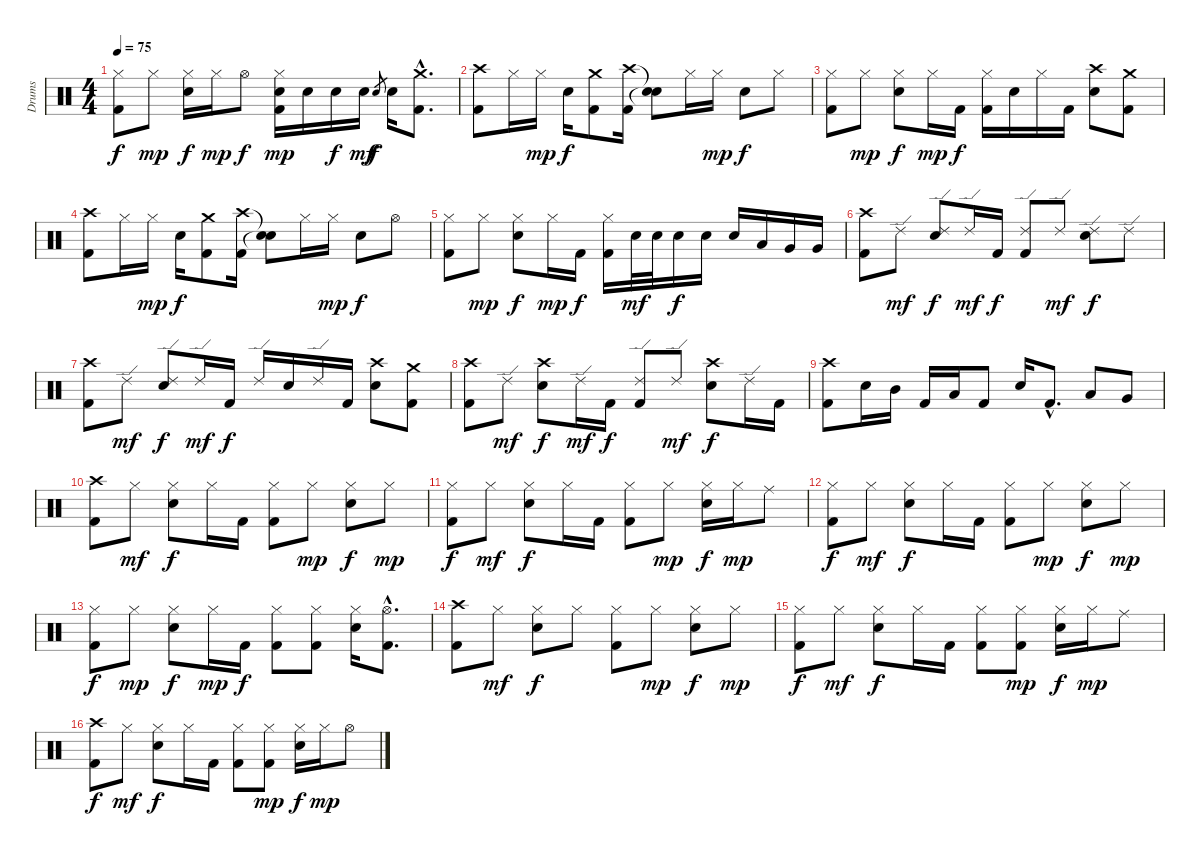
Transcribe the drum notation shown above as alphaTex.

\track ("Drums" "Drums") {instrument percussion}
\staff {score}
\articulation defaults
\ts (4 4)
\tempo 75
\clef neutral
\ks c
("Hi-Hat (closed)" "Kick (hit) 2").8{dy f} "Hi-Hat (closed)".8{dy mp} ("Hi-Hat (closed)" "Electric Snare (hit)").16{dy f} "Hi-Hat (closed)".16{dy mp} "Hi-Hat (open)".8{dy f} ("Hi-Hat (closed)" "Electric Snare (hit)" "Kick (hit) 2").16{dy mp} "Electric Snare (hit)".16 "Electric Snare (hit)".16{dy f} "Electric Snare (hit)".16{dy mf} "Electric Snare (hit)".8{gr dy f} "Electric Snare (hit)".16 ("Crash medium (hit)"{hac} "Kick (hit) 2"{hac}).8{d} |
("Crash high (hit)" "Kick (hit) 2").8 "Hi-Hat (closed)".16 "Hi-Hat (closed)".16{dy mp} "Electric Snare (hit)".16{dy f} ("Crash medium (hit)" "Kick (hit) 2").8 ("Crash high (hit)" "Kick (hit) 2").16 ("Snare (hit)"{t} "Snare (hit)"{t}).8 "Hi-Hat (closed)".16 "Hi-Hat (closed)".16{dy mp} "Electric Snare (hit)".8{dy f} "Hi-Hat (closed)".8 |
("Hi-Hat (closed)" "Kick (hit) 2").8 "Hi-Hat (closed)".8{dy mp} ("Hi-Hat (closed)" "Electric Snare (hit)").8{dy f} "Hi-Hat (closed)".16{dy mp} "Kick (hit) 2".16{dy f} ("Hi-Hat (closed)" "Kick (hit) 2").16 "Electric Snare (hit)".16 "Hi-Hat (closed)".16 "Kick (hit) 2".16 ("Crash high (hit)" "Electric Snare (hit)").8 ("Crash medium (hit)" "Kick (hit) 2").8 |
("Crash high (hit)" "Kick (hit) 2").8 "Hi-Hat (closed)".16 "Hi-Hat (closed)".16{dy mp} "Electric Snare (hit)".16{dy f} ("Crash medium (hit)" "Kick (hit) 2").8 ("Crash high (hit)" "Kick (hit) 2").16 ("Snare (hit)"{t} "Snare (hit)"{t}).8 "Hi-Hat (closed)".16 "Hi-Hat (closed)".16{dy mp} "Electric Snare (hit)".8{dy f} "Hi-Hat (open)".8 |
("Hi-Hat (closed)" "Kick (hit) 2").8 "Hi-Hat (closed)".8{dy mp} ("Hi-Hat (closed)" "Electric Snare (hit)").8{dy f} "Hi-Hat (closed)".16{dy mp} "Kick (hit) 2".16{dy f} ("Hi-Hat (closed)" "Kick (hit) 2").16 "Electric Snare (hit)".32{dy mf} "Electric Snare (hit)".32 "Electric Snare (hit)".16{dy f} "Electric Snare (hit)".16 "Electric Snare (hit)".16 "Low Tom (hit)".16 "Very Low Tom (hit)".16 "Very Low Tom (hit)".16 |
("Crash high (hit)" "Kick (hit) 2").8 "Ride (edge) 2".8{dy mf} ("Ride (edge) 2" "Electric Snare (hit)").8{dy f} "Ride (edge) 2".16{dy mf} "Kick (hit) 2".16{dy f} ("Ride (edge) 2" "Kick (hit) 2").8 "Ride (edge) 2".8{dy mf} ("Ride (edge) 2" "Electric Snare (hit)").8{dy f} "Ride (edge) 2".8 |
("Crash high (hit)" "Kick (hit) 2").8 "Ride (edge) 2".8{dy mf} ("Ride (edge) 2" "Electric Snare (hit)").8{dy f} "Ride (edge) 2".16{dy mf} "Kick (hit) 2".16{dy f} "Ride (edge) 2".16 "Electric Snare (hit)".16 "Ride (edge) 2".16 "Kick (hit) 2".16 ("Electric Snare (hit)" "Crash high (hit)").8 ("Kick (hit) 2" "Crash medium (hit)").8 |
("Crash high (hit)" "Kick (hit) 2").8 "Ride (edge) 2".8{dy mf} ("Crash high (hit)" "Electric Snare (hit)").8{dy f} "Ride (edge) 2".16{dy mf} "Kick (hit) 2".16{dy f} ("Ride (edge) 2" "Kick (hit) 2").8 "Ride (edge) 2".8{dy mf} ("Crash high (hit)" "Electric Snare (hit)").8{dy f} "Ride (edge) 2".16 "Kick (hit) 2".16 |
("Crash high (hit)" "Kick (hit) 2").8 "Electric Snare (hit)".16 "Mid Tom (hit)".16 "Kick (hit) 2".16 "Low Tom (hit)".16 "Kick (hit) 2".8 "Electric Snare (hit)".16 "Kick (hit) 2"{hac}.8{d} "Low Tom (hit)".8 "Very Low Tom (hit)".8 |
("Crash high (hit)" "Kick (hit) 2").8 "Hi-Hat (closed)".8{dy mf} ("Hi-Hat (closed)" "Electric Snare (hit)").8{dy f} "Hi-Hat (closed)".16 "Kick (hit) 2".16 ("Hi-Hat (closed)" "Kick (hit) 2").8 "Hi-Hat (closed)".8{dy mp} ("Hi-Hat (closed)" "Electric Snare (hit)").8{dy f} "Hi-Hat (closed)".8{dy mp} |
("Hi-Hat (closed)" "Kick (hit) 2").8{dy f} "Hi-Hat (closed)".8{dy mf} ("Hi-Hat (closed)" "Electric Snare (hit)").8{dy f} "Hi-Hat (closed)".16 "Kick (hit) 2".16 ("Hi-Hat (closed)" "Kick (hit) 2").8 "Hi-Hat (closed)".8{dy mp} ("Hi-Hat (closed)" "Electric Snare (hit)").16{dy f} "Hi-Hat (closed)".16{dy mp} "Ride (middle)".8 |
("Hi-Hat (closed)" "Kick (hit) 2").8{dy f} "Hi-Hat (closed)".8{dy mf} ("Hi-Hat (closed)" "Electric Snare (hit)").8{dy f} "Hi-Hat (closed)".16 "Kick (hit) 2".16 ("Hi-Hat (closed)" "Kick (hit) 2").8 "Hi-Hat (closed)".8{dy mp} ("Hi-Hat (closed)" "Electric Snare (hit)").8{dy f} "Hi-Hat (closed)".8{dy mp} |
("Hi-Hat (closed)" "Kick (hit) 2").8{dy f} "Hi-Hat (closed)".8{dy mp} ("Hi-Hat (closed)" "Electric Snare (hit)").8{dy f} "Hi-Hat (closed)".16{dy mp} "Kick (hit) 2".16{dy f} ("Hi-Hat (closed)" "Kick (hit) 2").8 ("Hi-Hat (closed)" "Kick (hit) 2").8 ("Hi-Hat (closed)" "Electric Snare (hit)").16 ("Hi-Hat (open)"{hac} "Kick (hit) 2"{hac}).8{d} |
("Crash high (hit)" "Kick (hit) 2").8 "Hi-Hat (closed)".8{dy mf} ("Hi-Hat (closed)" "Electric Snare (hit)").8{dy f} "Hi-Hat (closed)".8 ("Hi-Hat (closed)" "Kick (hit) 2").8 "Hi-Hat (closed)".8{dy mp} ("Hi-Hat (closed)" "Electric Snare (hit)").8{dy f} "Hi-Hat (closed)".8{dy mp} |
("Hi-Hat (closed)" "Kick (hit) 2").8{dy f} "Hi-Hat (closed)".8{dy mf} ("Hi-Hat (closed)" "Electric Snare (hit)").8{dy f} "Hi-Hat (closed)".16 "Kick (hit) 2".16 ("Hi-Hat (closed)" "Kick (hit) 2").8 ("Hi-Hat (closed)" "Kick (hit) 2").8{dy mp} ("Hi-Hat (closed)" "Electric Snare (hit)").16{dy f} "Hi-Hat (closed)".16{dy mp} "Ride (middle)".8 |
("Crash high (hit)" "Kick (hit) 2").8{dy f} "Hi-Hat (closed)".8{dy mf} ("Hi-Hat (closed)" "Electric Snare (hit)").8{dy f} "Hi-Hat (closed)".16 "Kick (hit) 2".16 ("Hi-Hat (closed)" "Kick (hit) 2").8 ("Hi-Hat (closed)" "Kick (hit) 2").8{dy mp} ("Hi-Hat (closed)" "Electric Snare (hit)").16{dy f} "Hi-Hat (closed)".16{dy mp} "Hi-Hat (open)".8
